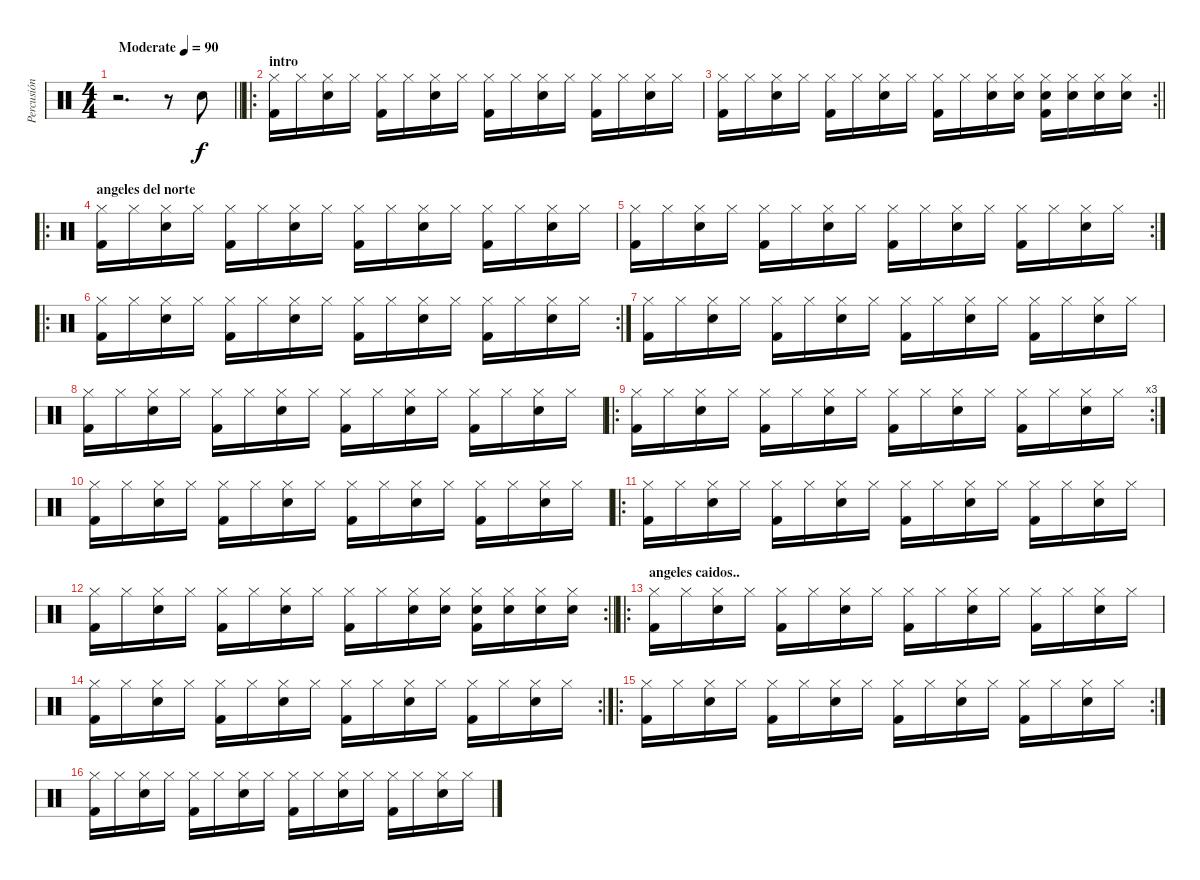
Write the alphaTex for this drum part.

\track ("Percusión" "Percusión") {instrument percussion}
\staff {score}
\articulation defaults
\ts (4 4)
\tempo (90 "Moderate")
\clef neutral
\barLineRight lightlight
\ks c
r.2{d dy f} r.8 "Electric Snare (hit)".8 |
\ro
\section ("" "intro")
("Hi-Hat (closed)" "Kick (hit) 2").16 "Hi-Hat (closed)".16 ("Hi-Hat (closed)" "Electric Snare (hit)").16 "Hi-Hat (closed)".16 ("Hi-Hat (closed)" "Kick (hit) 2").16 "Hi-Hat (closed)".16 ("Hi-Hat (closed)" "Electric Snare (hit)").16 "Hi-Hat (closed)".16 ("Hi-Hat (closed)" "Kick (hit) 2").16 "Hi-Hat (closed)".16 ("Hi-Hat (closed)" "Electric Snare (hit)").16 "Hi-Hat (closed)".16 ("Hi-Hat (closed)" "Kick (hit) 2").16 "Hi-Hat (closed)".16 ("Hi-Hat (closed)" "Electric Snare (hit)").16 "Hi-Hat (closed)".16 |
\rc 2
\barLineRight lightlight
("Hi-Hat (closed)" "Kick (hit) 2").16 "Hi-Hat (closed)".16 ("Hi-Hat (closed)" "Electric Snare (hit)").16 "Hi-Hat (closed)".16 ("Hi-Hat (closed)" "Kick (hit) 2").16 "Hi-Hat (closed)".16 ("Hi-Hat (closed)" "Electric Snare (hit)").16 "Hi-Hat (closed)".16 ("Hi-Hat (closed)" "Kick (hit) 2").16 "Hi-Hat (closed)".16 ("Hi-Hat (closed)" "Electric Snare (hit)").16 ("Hi-Hat (closed)" "Electric Snare (hit)").16 ("Hi-Hat (closed)" "Electric Snare (hit)" "Kick (hit) 2").16 ("Hi-Hat (closed)" "Electric Snare (hit)").16 ("Hi-Hat (closed)" "Electric Snare (hit)").16 ("Hi-Hat (closed)" "Electric Snare (hit)").16 |
\ro
\section ("" "angeles del norte")
("Hi-Hat (closed)" "Kick (hit) 2").16 "Hi-Hat (closed)".16 ("Hi-Hat (closed)" "Electric Snare (hit)").16 "Hi-Hat (closed)".16 ("Hi-Hat (closed)" "Kick (hit) 2").16 "Hi-Hat (closed)".16 ("Hi-Hat (closed)" "Electric Snare (hit)").16 "Hi-Hat (closed)".16 ("Hi-Hat (closed)" "Kick (hit) 2").16 "Hi-Hat (closed)".16 ("Hi-Hat (closed)" "Electric Snare (hit)").16 "Hi-Hat (closed)".16 ("Hi-Hat (closed)" "Kick (hit) 2").16 "Hi-Hat (closed)".16 ("Hi-Hat (closed)" "Electric Snare (hit)").16 "Hi-Hat (closed)".16 |
\rc 2
("Hi-Hat (closed)" "Kick (hit) 2").16 "Hi-Hat (closed)".16 ("Hi-Hat (closed)" "Electric Snare (hit)").16 "Hi-Hat (closed)".16 ("Hi-Hat (closed)" "Kick (hit) 2").16 "Hi-Hat (closed)".16 ("Hi-Hat (closed)" "Electric Snare (hit)").16 "Hi-Hat (closed)".16 ("Hi-Hat (closed)" "Kick (hit) 2").16 "Hi-Hat (closed)".16 ("Hi-Hat (closed)" "Electric Snare (hit)").16 "Hi-Hat (closed)".16 ("Hi-Hat (closed)" "Kick (hit) 2").16 "Hi-Hat (closed)".16 ("Hi-Hat (closed)" "Electric Snare (hit)").16 "Hi-Hat (closed)".16 |
\ro
\rc 2
("Hi-Hat (closed)" "Kick (hit) 2").16 "Hi-Hat (closed)".16 ("Hi-Hat (closed)" "Electric Snare (hit)").16 "Hi-Hat (closed)".16 ("Hi-Hat (closed)" "Kick (hit) 2").16 "Hi-Hat (closed)".16 ("Hi-Hat (closed)" "Electric Snare (hit)").16 "Hi-Hat (closed)".16 ("Hi-Hat (closed)" "Kick (hit) 2").16 "Hi-Hat (closed)".16 ("Hi-Hat (closed)" "Electric Snare (hit)").16 "Hi-Hat (closed)".16 ("Hi-Hat (closed)" "Kick (hit) 2").16 "Hi-Hat (closed)".16 ("Hi-Hat (closed)" "Electric Snare (hit)").16 "Hi-Hat (closed)".16 |
("Hi-Hat (closed)" "Kick (hit) 2").16 "Hi-Hat (closed)".16 ("Hi-Hat (closed)" "Electric Snare (hit)").16 "Hi-Hat (closed)".16 ("Hi-Hat (closed)" "Kick (hit) 2").16 "Hi-Hat (closed)".16 ("Hi-Hat (closed)" "Electric Snare (hit)").16 "Hi-Hat (closed)".16 ("Hi-Hat (closed)" "Kick (hit) 2").16 "Hi-Hat (closed)".16 ("Hi-Hat (closed)" "Electric Snare (hit)").16 "Hi-Hat (closed)".16 ("Hi-Hat (closed)" "Kick (hit) 2").16 "Hi-Hat (closed)".16 ("Hi-Hat (closed)" "Electric Snare (hit)").16 "Hi-Hat (closed)".16 |
("Hi-Hat (closed)" "Kick (hit) 2").16 "Hi-Hat (closed)".16 ("Hi-Hat (closed)" "Electric Snare (hit)").16 "Hi-Hat (closed)".16 ("Hi-Hat (closed)" "Kick (hit) 2").16 "Hi-Hat (closed)".16 ("Hi-Hat (closed)" "Electric Snare (hit)").16 "Hi-Hat (closed)".16 ("Hi-Hat (closed)" "Kick (hit) 2").16 "Hi-Hat (closed)".16 ("Hi-Hat (closed)" "Electric Snare (hit)").16 "Hi-Hat (closed)".16 ("Hi-Hat (closed)" "Kick (hit) 2").16 "Hi-Hat (closed)".16 ("Hi-Hat (closed)" "Electric Snare (hit)").16 "Hi-Hat (closed)".16 |
\ro
\rc 3
("Hi-Hat (closed)" "Kick (hit) 2").16 "Hi-Hat (closed)".16 ("Hi-Hat (closed)" "Electric Snare (hit)").16 "Hi-Hat (closed)".16 ("Hi-Hat (closed)" "Kick (hit) 2").16 "Hi-Hat (closed)".16 ("Hi-Hat (closed)" "Electric Snare (hit)").16 "Hi-Hat (closed)".16 ("Hi-Hat (closed)" "Kick (hit) 2").16 "Hi-Hat (closed)".16 ("Hi-Hat (closed)" "Electric Snare (hit)").16 "Hi-Hat (closed)".16 ("Hi-Hat (closed)" "Kick (hit) 2").16 "Hi-Hat (closed)".16 ("Hi-Hat (closed)" "Electric Snare (hit)").16 "Hi-Hat (closed)".16 |
("Hi-Hat (closed)" "Kick (hit) 2").16 "Hi-Hat (closed)".16 ("Hi-Hat (closed)" "Electric Snare (hit)").16 "Hi-Hat (closed)".16 ("Hi-Hat (closed)" "Kick (hit) 2").16 "Hi-Hat (closed)".16 ("Hi-Hat (closed)" "Electric Snare (hit)").16 "Hi-Hat (closed)".16 ("Hi-Hat (closed)" "Kick (hit) 2").16 "Hi-Hat (closed)".16 ("Hi-Hat (closed)" "Electric Snare (hit)").16 "Hi-Hat (closed)".16 ("Hi-Hat (closed)" "Kick (hit) 2").16 "Hi-Hat (closed)".16 ("Hi-Hat (closed)" "Electric Snare (hit)").16 "Hi-Hat (closed)".16 |
\ro
("Hi-Hat (closed)" "Kick (hit) 2").16 "Hi-Hat (closed)".16 ("Hi-Hat (closed)" "Electric Snare (hit)").16 "Hi-Hat (closed)".16 ("Hi-Hat (closed)" "Kick (hit) 2").16 "Hi-Hat (closed)".16 ("Hi-Hat (closed)" "Electric Snare (hit)").16 "Hi-Hat (closed)".16 ("Hi-Hat (closed)" "Kick (hit) 2").16 "Hi-Hat (closed)".16 ("Hi-Hat (closed)" "Electric Snare (hit)").16 "Hi-Hat (closed)".16 ("Hi-Hat (closed)" "Kick (hit) 2").16 "Hi-Hat (closed)".16 ("Hi-Hat (closed)" "Electric Snare (hit)").16 "Hi-Hat (closed)".16 |
\rc 2
\barLineRight lightlight
("Hi-Hat (closed)" "Kick (hit) 2").16 "Hi-Hat (closed)".16 ("Hi-Hat (closed)" "Electric Snare (hit)").16 "Hi-Hat (closed)".16 ("Hi-Hat (closed)" "Kick (hit) 2").16 "Hi-Hat (closed)".16 ("Hi-Hat (closed)" "Electric Snare (hit)").16 "Hi-Hat (closed)".16 ("Hi-Hat (closed)" "Kick (hit) 2").16 "Hi-Hat (closed)".16 ("Hi-Hat (closed)" "Electric Snare (hit)").16 ("Hi-Hat (closed)" "Electric Snare (hit)").16 ("Hi-Hat (closed)" "Electric Snare (hit)" "Kick (hit) 2").16 ("Hi-Hat (closed)" "Electric Snare (hit)").16 ("Hi-Hat (closed)" "Electric Snare (hit)").16 ("Hi-Hat (closed)" "Electric Snare (hit)").16 |
\ro
\section ("" "angeles caidos..")
("Hi-Hat (closed)" "Kick (hit) 2").16 "Hi-Hat (closed)".16 ("Hi-Hat (closed)" "Electric Snare (hit)").16 "Hi-Hat (closed)".16 ("Hi-Hat (closed)" "Kick (hit) 2").16 "Hi-Hat (closed)".16 ("Hi-Hat (closed)" "Electric Snare (hit)").16 "Hi-Hat (closed)".16 ("Hi-Hat (closed)" "Kick (hit) 2").16 "Hi-Hat (closed)".16 ("Hi-Hat (closed)" "Electric Snare (hit)").16 "Hi-Hat (closed)".16 ("Hi-Hat (closed)" "Kick (hit) 2").16 "Hi-Hat (closed)".16 ("Hi-Hat (closed)" "Electric Snare (hit)").16 "Hi-Hat (closed)".16 |
\rc 2
("Hi-Hat (closed)" "Kick (hit) 2").16 "Hi-Hat (closed)".16 ("Hi-Hat (closed)" "Electric Snare (hit)").16 "Hi-Hat (closed)".16 ("Hi-Hat (closed)" "Kick (hit) 2").16 "Hi-Hat (closed)".16 ("Hi-Hat (closed)" "Electric Snare (hit)").16 "Hi-Hat (closed)".16 ("Hi-Hat (closed)" "Kick (hit) 2").16 "Hi-Hat (closed)".16 ("Hi-Hat (closed)" "Electric Snare (hit)").16 "Hi-Hat (closed)".16 ("Hi-Hat (closed)" "Kick (hit) 2").16 "Hi-Hat (closed)".16 ("Hi-Hat (closed)" "Electric Snare (hit)").16 "Hi-Hat (closed)".16 |
\ro
\rc 2
("Hi-Hat (closed)" "Kick (hit) 2").16 "Hi-Hat (closed)".16 ("Hi-Hat (closed)" "Electric Snare (hit)").16 "Hi-Hat (closed)".16 ("Hi-Hat (closed)" "Kick (hit) 2").16 "Hi-Hat (closed)".16 ("Hi-Hat (closed)" "Electric Snare (hit)").16 "Hi-Hat (closed)".16 ("Hi-Hat (closed)" "Kick (hit) 2").16 "Hi-Hat (closed)".16 ("Hi-Hat (closed)" "Electric Snare (hit)").16 "Hi-Hat (closed)".16 ("Hi-Hat (closed)" "Kick (hit) 2").16 "Hi-Hat (closed)".16 ("Hi-Hat (closed)" "Electric Snare (hit)").16 "Hi-Hat (closed)".16 |
("Hi-Hat (closed)" "Kick (hit) 2").16 "Hi-Hat (closed)".16 ("Hi-Hat (closed)" "Electric Snare (hit)").16 "Hi-Hat (closed)".16 ("Hi-Hat (closed)" "Kick (hit) 2").16 "Hi-Hat (closed)".16 ("Hi-Hat (closed)" "Electric Snare (hit)").16 "Hi-Hat (closed)".16 ("Hi-Hat (closed)" "Kick (hit) 2").16 "Hi-Hat (closed)".16 ("Hi-Hat (closed)" "Electric Snare (hit)").16 "Hi-Hat (closed)".16 ("Hi-Hat (closed)" "Kick (hit) 2").16 "Hi-Hat (closed)".16 ("Hi-Hat (closed)" "Electric Snare (hit)").16 "Hi-Hat (closed)".16
